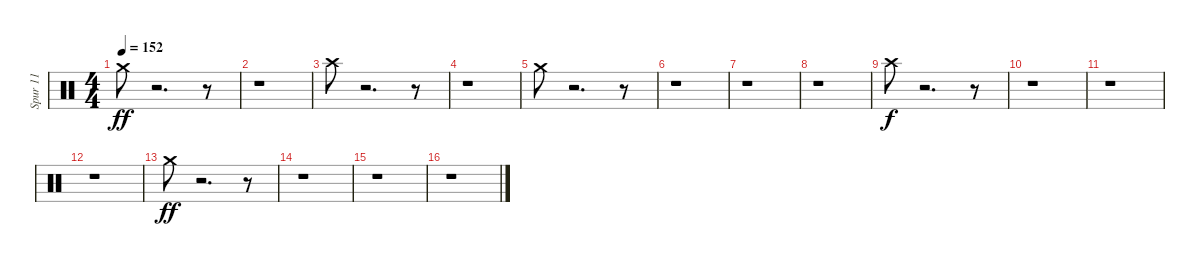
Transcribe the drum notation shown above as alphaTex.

\track ("Spur 11" "Spur 11") {instrument percussion}
\staff {score}
\articulation defaults
\ts (4 4)
\tempo 152
\clef neutral
\ks c "Crash medium (hit)".8{dy ff}
r.2{d} r.8 |
r.1 |
"Crash high (hit)".8 r.2{d} r.8 |
r.1 |
"Crash medium (hit)".8 r.2{d} r.8 |
r.1 |
r.1 |
r.1 |
"Crash high (hit)".8{dy f} r.2{d} r.8 |
r.1 |
r.1 |
r.1 |
"Crash medium (hit)".8{dy ff} r.2{d} r.8 |
r.1 |
r.1 |
r.1
